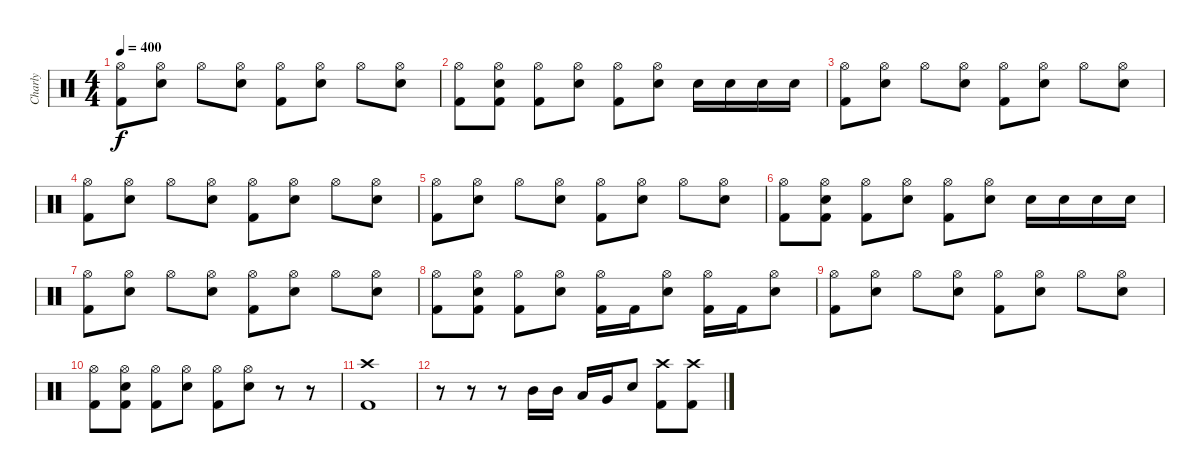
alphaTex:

\track ("Charly" "Charly") {instrument percussion}
\staff {score}
\articulation defaults
\ts (4 4)
\tempo 400
\clef neutral
\ks c
("Hi-Hat (open)" "Kick (hit) 2").8{dy f} ("Hi-Hat (open)" "Electric Snare (hit)").8 "Hi-Hat (open)".8 ("Hi-Hat (open)" "Electric Snare (hit)").8 ("Hi-Hat (open)" "Kick (hit) 2").8 ("Hi-Hat (open)" "Electric Snare (hit)").8 "Hi-Hat (open)".8 ("Hi-Hat (open)" "Electric Snare (hit)").8 |
("Hi-Hat (open)" "Kick (hit) 2").8 ("Hi-Hat (open)" "Electric Snare (hit)" "Kick (hit) 2").8 ("Hi-Hat (open)" "Kick (hit) 2").8 ("Hi-Hat (open)" "Electric Snare (hit)").8 ("Hi-Hat (open)" "Kick (hit) 2").8 ("Hi-Hat (open)" "Electric Snare (hit)").8 "Electric Snare (hit)".16 "Electric Snare (hit)".16 "Electric Snare (hit)".16 "Electric Snare (hit)".16 |
("Hi-Hat (open)" "Kick (hit) 2").8 ("Hi-Hat (open)" "Electric Snare (hit)").8 "Hi-Hat (open)".8 ("Hi-Hat (open)" "Electric Snare (hit)").8 ("Hi-Hat (open)" "Kick (hit) 2").8 ("Hi-Hat (open)" "Electric Snare (hit)").8 "Hi-Hat (open)".8 ("Hi-Hat (open)" "Electric Snare (hit)").8 |
("Hi-Hat (open)" "Kick (hit) 2").8 ("Hi-Hat (open)" "Electric Snare (hit)").8 "Hi-Hat (open)".8 ("Hi-Hat (open)" "Electric Snare (hit)").8 ("Hi-Hat (open)" "Kick (hit) 2").8 ("Hi-Hat (open)" "Electric Snare (hit)").8 "Hi-Hat (open)".8 ("Hi-Hat (open)" "Electric Snare (hit)").8 |
("Hi-Hat (open)" "Kick (hit) 2").8 ("Hi-Hat (open)" "Electric Snare (hit)").8 "Hi-Hat (open)".8 ("Hi-Hat (open)" "Electric Snare (hit)").8 ("Hi-Hat (open)" "Kick (hit) 2").8 ("Hi-Hat (open)" "Electric Snare (hit)").8 "Hi-Hat (open)".8 ("Hi-Hat (open)" "Electric Snare (hit)").8 |
("Hi-Hat (open)" "Kick (hit) 2").8 ("Hi-Hat (open)" "Electric Snare (hit)" "Kick (hit) 2").8 ("Hi-Hat (open)" "Kick (hit) 2").8 ("Hi-Hat (open)" "Electric Snare (hit)").8 ("Hi-Hat (open)" "Kick (hit) 2").8 ("Hi-Hat (open)" "Electric Snare (hit)").8 "Electric Snare (hit)".16 "Electric Snare (hit)".16 "Electric Snare (hit)".16 "Electric Snare (hit)".16 |
("Hi-Hat (open)" "Kick (hit) 2").8 ("Hi-Hat (open)" "Electric Snare (hit)").8 "Hi-Hat (open)".8 ("Hi-Hat (open)" "Electric Snare (hit)").8 ("Hi-Hat (open)" "Kick (hit) 2").8 ("Hi-Hat (open)" "Electric Snare (hit)").8 "Hi-Hat (open)".8 ("Hi-Hat (open)" "Electric Snare (hit)").8 |
("Hi-Hat (open)" "Kick (hit) 2").8 ("Hi-Hat (open)" "Electric Snare (hit)" "Kick (hit) 2").8 ("Hi-Hat (open)" "Kick (hit) 2").8 ("Hi-Hat (open)" "Electric Snare (hit)").8 ("Hi-Hat (open)" "Kick (hit) 2").16 "Kick (hit) 2".16 ("Hi-Hat (open)" "Electric Snare (hit)").8 ("Hi-Hat (open)" "Kick (hit) 2").16 "Kick (hit) 2".16 ("Hi-Hat (open)" "Electric Snare (hit)").8 |
("Hi-Hat (open)" "Kick (hit) 2").8 ("Hi-Hat (open)" "Electric Snare (hit)").8 "Hi-Hat (open)".8 ("Hi-Hat (open)" "Electric Snare (hit)").8 ("Hi-Hat (open)" "Kick (hit) 2").8 ("Hi-Hat (open)" "Electric Snare (hit)").8 "Hi-Hat (open)".8 ("Hi-Hat (open)" "Electric Snare (hit)").8 |
("Hi-Hat (open)" "Kick (hit) 2").8 ("Hi-Hat (open)" "Electric Snare (hit)" "Kick (hit) 2").8 ("Hi-Hat (open)" "Kick (hit) 2").8 ("Hi-Hat (open)" "Electric Snare (hit)").8 ("Hi-Hat (open)" "Kick (hit) 2").8 ("Hi-Hat (open)" "Electric Snare (hit)").8 r.8 r.8 |
("Crash high (hit)" "Kick (hit) 2").1 |
r.8 r.8 r.8 "Mid Tom (hit)".16 "Mid Tom (hit)".16 "Low Tom (hit)".16 "Very Low Tom (hit)".16 "Electric Snare (hit)".8 ("Crash high (hit)" "Kick (hit) 2").8 ("Crash high (hit)" "Kick (hit) 2").8
